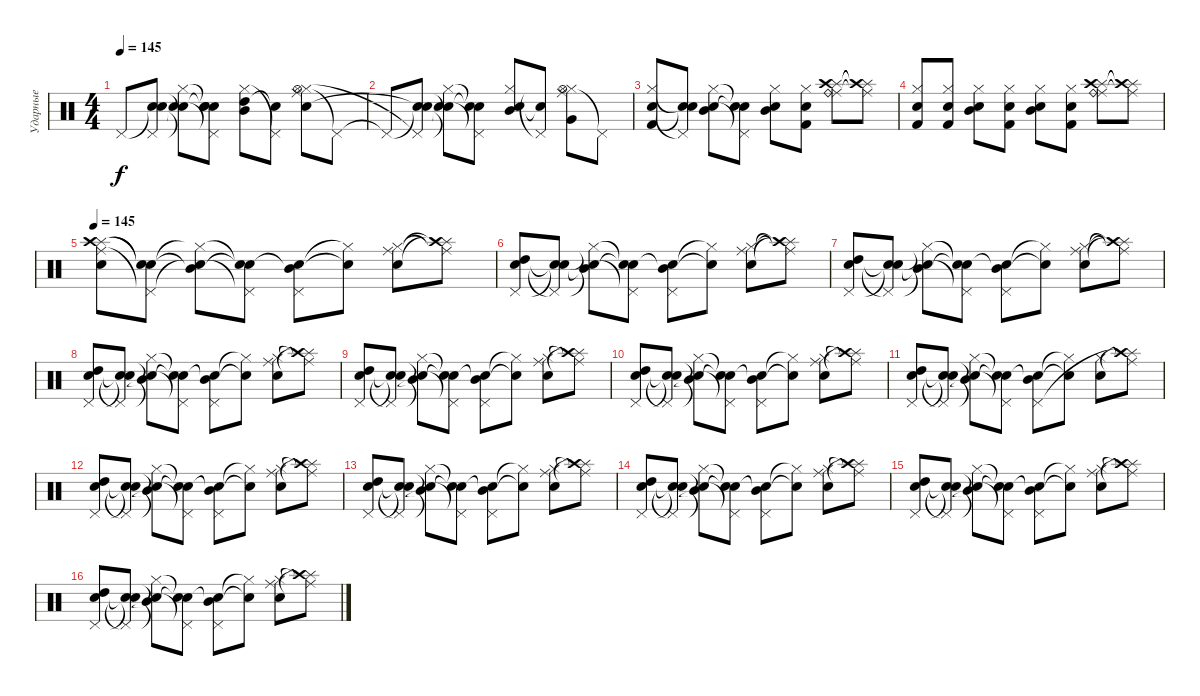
\track ("Ударные" "Ударные") {instrument percussion}
\staff {score}
\articulation defaults
\ts (4 4)
\tempo 145
\clef neutral
\ks c "Pedal Hi-Hat (hit)"{t}.8{dy f}
("Snare (hit)"{t} "Pedal Hi-Hat (hit)"{t} "Snare (hit)"{t}).8 ("Snare (hit)"{t} "Snare (hit) 2"{t} "Hi-Hat (closed)"{t}).8 ("Snare (hit)"{t} "Pedal Hi-Hat (hit)"{t} "Snare (hit)"{t} "Snare (hit)"{t}).8 ("Hi-Hat (closed)" "High Tom (hit)" "Mid Tom (hit)").8 ("Pedal Hi-Hat (hit)"{t} "Snare (hit)"{t}).8 ("Ride (middle)" "Hi-Hat (closed)" "Snare (hit) 2" "Hi-Hat (open)").8 "Pedal Hi-Hat (hit)"{t}.8 |
"Pedal Hi-Hat (hit)"{t}.8 ("Snare (hit)"{t} "Pedal Hi-Hat (hit)"{t} "Snare (hit)"{t}).8 ("Snare (hit)"{t} "Snare (hit) 2"{t} "Hi-Hat (closed)"{t}).8 ("Pedal Hi-Hat (hit)"{t} "Snare (hit)"{t} "Snare (hit)"{t}).8 ("Hi-Hat (closed)" "Snare (hit) 2" "Mid Tom (hit)").8 ("Pedal Hi-Hat (hit)"{t} "Snare (hit)"{t}).8 ("Ride (middle)" "Hi-Hat (closed)" "Very Low Tom (hit)" "Hi-Hat (open)").8 "Pedal Hi-Hat (hit)"{t}.8 |
("Kick (hit) 2" "Snare (hit) 2" "Hi-Hat (closed)").8 ("Snare (hit)"{t} "Pedal Hi-Hat (hit)"{t} "Snare (hit)"{t}).8 ("Mid Tom (hit)" "Electric Snare (hit)" "Hi-Hat (closed)").8 ("Snare (hit)"{t} "Pedal Hi-Hat (hit)"{t} "Snare (hit)"{t}).8 ("Mid Tom (hit)" "Electric Snare (hit)" "Hi-Hat (closed)").8 ("Kick (hit) 2" "Snare (hit) 2" "Hi-Hat (closed)").8 ("Splash (hit)" "Ride (middle)" "Crash high (hit)" "Ride (bell)").8 ("Splash (hit)"{t} "Ride (middle)"{t} "Crash high (hit)"{t}).8 |
("Kick (hit) 2" "Snare (hit) 2" "Hi-Hat (closed)").8 ("Kick (hit) 2" "Snare (hit) 2" "Hi-Hat (closed)").8 ("Mid Tom (hit)" "Electric Snare (hit)" "Hi-Hat (closed)").8 ("Kick (hit) 2" "Snare (hit) 2" "Hi-Hat (closed)").8 ("Mid Tom (hit)" "Electric Snare (hit)" "Hi-Hat (closed)").8 ("Kick (hit) 2" "Snare (hit) 2" "Hi-Hat (closed)").8 ("Splash (hit)" "Ride (middle)" "Crash high (hit)" "Ride (bell)").8 ("Splash (hit)"{t} "Ride (middle)"{t} "Crash high (hit)"{t}).8 |
\tempo 145
("Splash (hit)" "Ride (middle)" "Crash high (hit)" "Snare (hit) 2").8 ("Snare (hit)"{t} "Pedal Hi-Hat (hit)"{t} "Snare (hit)"{t}).8 ("Mid Tom (hit)"{t} "Electric Snare (hit)"{t} "Hi-Hat (closed)"{t}).8 ("Snare (hit)"{t} "Pedal Hi-Hat (hit)"{t} "Snare (hit)"{t}).8 ("Mid Tom (hit)"{t} "Snare (hit) 2" "Pedal Hi-Hat (hit)").8 ("Snare (hit) 2"{t} "Hi-Hat (closed)"{t}).8 ("Snare (hit) 2" "Hi-Hat (closed)" "Ride (middle)").8 ("Splash (hit)"{t} "Ride (middle)"{t} "Crash high (hit)"{t}).8 |
("High Tom (hit)" "Snare (hit) 2" "Pedal Hi-Hat (hit)").8 ("Snare (hit)"{t} "Pedal Hi-Hat (hit)"{t} "Snare (hit)"{t}).8 ("Mid Tom (hit)"{t} "Electric Snare (hit)"{t} "Hi-Hat (closed)"{t}).8 ("Snare (hit)"{t} "Pedal Hi-Hat (hit)"{t} "Snare (hit)"{t}).8 ("Mid Tom (hit)"{t} "Snare (hit) 2" "Pedal Hi-Hat (hit)").8 ("Snare (hit) 2"{t} "Hi-Hat (closed)"{t}).8 ("Snare (hit) 2" "Hi-Hat (closed)" "Ride (middle)").8 ("Splash (hit)"{t} "Ride (middle)"{t} "Crash high (hit)"{t}).8 |
("High Tom (hit)" "Snare (hit) 2" "Pedal Hi-Hat (hit)").8 ("Snare (hit)"{t} "Pedal Hi-Hat (hit)"{t} "Snare (hit)"{t}).8 ("Mid Tom (hit)"{t} "Electric Snare (hit)"{t} "Hi-Hat (closed)"{t}).8 ("Snare (hit)"{t} "Pedal Hi-Hat (hit)"{t} "Snare (hit)"{t}).8 ("Mid Tom (hit)"{t} "Snare (hit) 2" "Pedal Hi-Hat (hit)").8 ("Snare (hit) 2"{t} "Hi-Hat (closed)"{t}).8 ("Snare (hit) 2" "Hi-Hat (closed)" "Ride (middle)").8 ("Splash (hit)"{t} "Ride (middle)"{t} "Crash high (hit)"{t}).8 |
("High Tom (hit)" "Snare (hit) 2" "Pedal Hi-Hat (hit)").8 ("Snare (hit)"{t} "Pedal Hi-Hat (hit)"{t} "Snare (hit)"{t}).8 ("Mid Tom (hit)"{t} "Electric Snare (hit)"{t} "Hi-Hat (closed)"{t}).8 ("Snare (hit)"{t} "Pedal Hi-Hat (hit)"{t} "Snare (hit)"{t}).8 ("Mid Tom (hit)"{t} "Snare (hit) 2" "Pedal Hi-Hat (hit)").8 ("Snare (hit) 2"{t} "Hi-Hat (closed)"{t}).8 ("Snare (hit) 2" "Hi-Hat (closed)" "Ride (middle)").8 ("Splash (hit)"{t} "Ride (middle)"{t} "Crash high (hit)"{t}).8 |
("High Tom (hit)" "Snare (hit) 2" "Pedal Hi-Hat (hit)").8 ("Snare (hit)"{t} "Pedal Hi-Hat (hit)"{t} "Snare (hit)"{t}).8 ("Mid Tom (hit)"{t} "Electric Snare (hit)"{t} "Hi-Hat (closed)"{t}).8 ("Snare (hit)"{t} "Pedal Hi-Hat (hit)"{t} "Snare (hit)"{t}).8 ("Mid Tom (hit)"{t} "Snare (hit) 2" "Pedal Hi-Hat (hit)").8 ("Snare (hit) 2"{t} "Hi-Hat (closed)"{t}).8 ("Snare (hit) 2" "Hi-Hat (closed)" "Ride (middle)").8 ("Splash (hit)"{t} "Ride (middle)"{t} "Crash high (hit)"{t}).8 |
("High Tom (hit)" "Snare (hit) 2" "Pedal Hi-Hat (hit)").8 ("Snare (hit)"{t} "Pedal Hi-Hat (hit)"{t} "Snare (hit)"{t}).8 ("Mid Tom (hit)"{t} "Electric Snare (hit)"{t} "Hi-Hat (closed)"{t}).8 ("Snare (hit)"{t} "Pedal Hi-Hat (hit)"{t} "Snare (hit)"{t}).8 ("Mid Tom (hit)"{t} "Snare (hit) 2" "Pedal Hi-Hat (hit)").8 ("Snare (hit) 2"{t} "Hi-Hat (closed)"{t}).8 ("Snare (hit) 2" "Hi-Hat (closed)" "Ride (middle)").8 ("Splash (hit)"{t} "Ride (middle)"{t} "Crash high (hit)"{t}).8 |
("High Tom (hit)" "Snare (hit) 2" "Pedal Hi-Hat (hit)").8 ("Snare (hit)"{t} "Pedal Hi-Hat (hit)"{t} "Snare (hit)"{t}).8 ("Mid Tom (hit)"{t} "Electric Snare (hit)"{t} "Hi-Hat (closed)"{t}).8 ("Snare (hit)"{t} "Pedal Hi-Hat (hit)"{t} "Snare (hit)"{t}).8 ("Mid Tom (hit)"{t} "Snare (hit) 2" "Pedal Hi-Hat (hit)").8 ("Snare (hit) 2"{t} "Hi-Hat (closed)"{t}).8 ("Snare (hit) 2" "Hi-Hat (closed)").8 ("Splash (hit)"{t} "Ride (middle)"{t} "Crash high (hit)"{t}).8 |
("High Tom (hit)" "Snare (hit) 2" "Pedal Hi-Hat (hit)").8 ("Snare (hit)"{t} "Pedal Hi-Hat (hit)"{t} "Snare (hit)"{t}).8 ("Mid Tom (hit)"{t} "Electric Snare (hit)"{t} "Hi-Hat (closed)"{t}).8 ("Snare (hit)"{t} "Pedal Hi-Hat (hit)"{t} "Snare (hit)"{t}).8 ("Mid Tom (hit)"{t} "Snare (hit) 2" "Pedal Hi-Hat (hit)").8 ("Snare (hit) 2"{t} "Hi-Hat (closed)"{t}).8 ("Snare (hit) 2" "Hi-Hat (closed)" "Ride (middle)").8 ("Splash (hit)"{t} "Ride (middle)"{t} "Crash high (hit)"{t}).8 |
("High Tom (hit)" "Snare (hit) 2" "Pedal Hi-Hat (hit)").8 ("Snare (hit)"{t} "Pedal Hi-Hat (hit)"{t} "Snare (hit)"{t}).8 ("Mid Tom (hit)"{t} "Electric Snare (hit)"{t} "Hi-Hat (closed)"{t}).8 ("Snare (hit)"{t} "Pedal Hi-Hat (hit)"{t} "Snare (hit)"{t}).8 ("Mid Tom (hit)"{t} "Snare (hit) 2" "Pedal Hi-Hat (hit)").8 ("Snare (hit) 2"{t} "Hi-Hat (closed)"{t}).8 ("Snare (hit) 2" "Hi-Hat (closed)" "Ride (middle)").8 ("Splash (hit)"{t} "Ride (middle)"{t} "Crash high (hit)"{t}).8 |
("High Tom (hit)" "Snare (hit) 2" "Pedal Hi-Hat (hit)").8 ("Snare (hit)"{t} "Pedal Hi-Hat (hit)"{t} "Snare (hit)"{t}).8 ("Mid Tom (hit)"{t} "Electric Snare (hit)"{t} "Hi-Hat (closed)"{t}).8 ("Snare (hit)"{t} "Pedal Hi-Hat (hit)"{t} "Snare (hit)"{t}).8 ("Mid Tom (hit)"{t} "Snare (hit) 2" "Pedal Hi-Hat (hit)").8 ("Snare (hit) 2"{t} "Hi-Hat (closed)"{t}).8 ("Snare (hit) 2" "Hi-Hat (closed)" "Ride (middle)").8 ("Splash (hit)"{t} "Ride (middle)"{t} "Crash high (hit)"{t}).8 |
("High Tom (hit)" "Snare (hit) 2" "Pedal Hi-Hat (hit)").8 ("Snare (hit)"{t} "Pedal Hi-Hat (hit)"{t} "Snare (hit)"{t}).8 ("Mid Tom (hit)"{t} "Electric Snare (hit)"{t} "Hi-Hat (closed)"{t}).8 ("Snare (hit)"{t} "Pedal Hi-Hat (hit)"{t} "Snare (hit)"{t}).8 ("Mid Tom (hit)"{t} "Snare (hit) 2" "Pedal Hi-Hat (hit)").8 ("Snare (hit) 2"{t} "Hi-Hat (closed)"{t}).8 ("Snare (hit) 2" "Hi-Hat (closed)" "Ride (middle)").8 ("Splash (hit)"{t} "Ride (middle)"{t} "Crash high (hit)"{t}).8 |
("High Tom (hit)" "Snare (hit) 2" "Pedal Hi-Hat (hit)").8 ("Snare (hit)"{t} "Pedal Hi-Hat (hit)"{t} "Snare (hit)"{t}).8 ("Mid Tom (hit)"{t} "Electric Snare (hit)"{t} "Hi-Hat (closed)"{t}).8 ("Snare (hit)"{t} "Pedal Hi-Hat (hit)"{t} "Snare (hit)"{t}).8 ("Mid Tom (hit)"{t} "Snare (hit) 2" "Pedal Hi-Hat (hit)").8 ("Snare (hit) 2"{t} "Hi-Hat (closed)"{t}).8 ("Snare (hit) 2" "Hi-Hat (closed)" "Ride (middle)").8 ("Splash (hit)"{t} "Ride (middle)"{t} "Crash high (hit)"{t}).8
